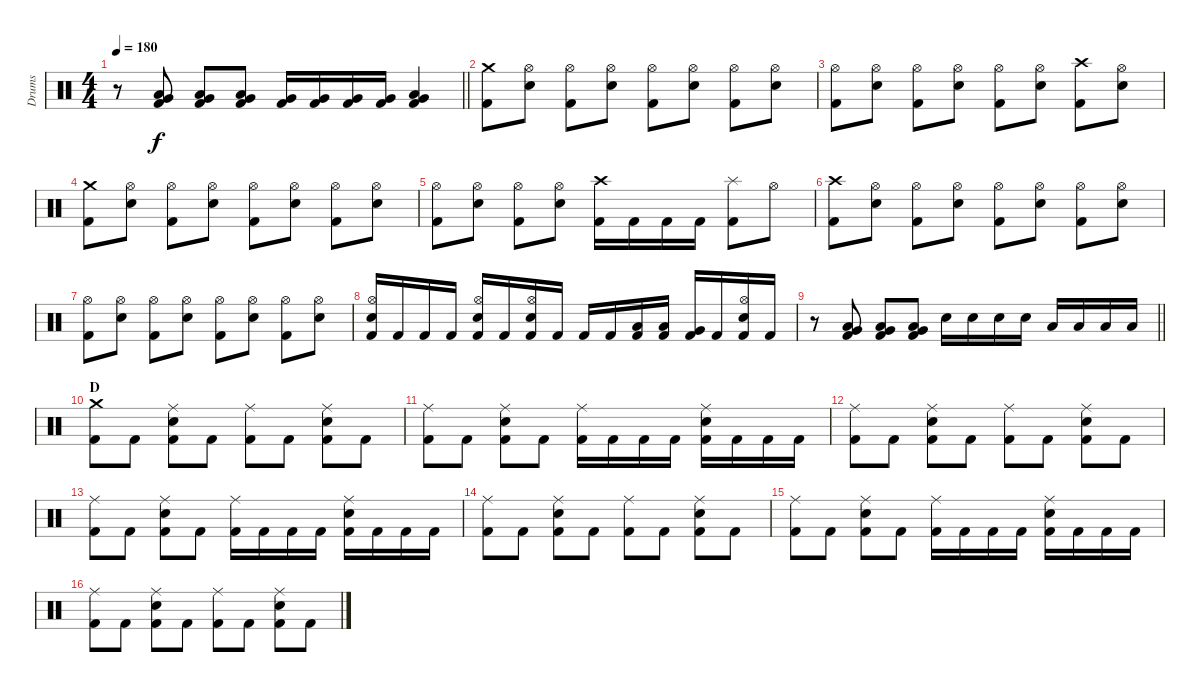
\track ("Drums" "Drums") {instrument percussion}
\staff {score}
\articulation defaults
\ts (4 4)
\tempo 180
\clef neutral
\barLineRight lightlight
\ks c
r.8{dy f} ("Low Tom (hit)" "Very Low Tom (hit)" "Kick (hit) 2").8 ("Low Tom (hit)" "Very Low Tom (hit)" "Kick (hit) 2").8 ("Low Tom (hit)" "Very Low Tom (hit)" "Kick (hit) 2").8 ("Very Low Tom (hit)" "Kick (hit) 2").16 ("Very Low Tom (hit)" "Kick (hit) 2").16 ("Very Low Tom (hit)" "Kick (hit) 2").16 ("Very Low Tom (hit)" "Kick (hit) 2").16 ("Low Tom (hit)" "Very Low Tom (hit)" "Kick (hit) 2").4 |
("Crash medium (hit)" "Kick (hit) 2").8 ("Hi-Hat (open)" "Electric Snare (hit)").8 ("Hi-Hat (open)" "Kick (hit) 2").8 ("Hi-Hat (open)" "Electric Snare (hit)").8 ("Hi-Hat (open)" "Kick (hit) 2").8 ("Hi-Hat (open)" "Electric Snare (hit)").8 ("Hi-Hat (open)" "Kick (hit) 2").8 ("Hi-Hat (open)" "Electric Snare (hit)").8 |
("Hi-Hat (open)" "Kick (hit) 2").8 ("Hi-Hat (open)" "Electric Snare (hit)").8 ("Hi-Hat (open)" "Kick (hit) 2").8 ("Hi-Hat (open)" "Electric Snare (hit)").8 ("Hi-Hat (open)" "Kick (hit) 2").8 ("Hi-Hat (open)" "Electric Snare (hit)").8 ("Crash high (hit)" "Kick (hit) 2").8 ("Hi-Hat (open)" "Electric Snare (hit)").8 |
("Crash medium (hit)" "Kick (hit) 2").8 ("Hi-Hat (open)" "Electric Snare (hit)").8 ("Hi-Hat (open)" "Kick (hit) 2").8 ("Hi-Hat (open)" "Electric Snare (hit)").8 ("Hi-Hat (open)" "Kick (hit) 2").8 ("Hi-Hat (open)" "Electric Snare (hit)").8 ("Hi-Hat (open)" "Kick (hit) 2").8 ("Hi-Hat (open)" "Electric Snare (hit)").8 |
("Hi-Hat (open)" "Kick (hit) 2").8 ("Hi-Hat (open)" "Electric Snare (hit)").8 ("Hi-Hat (open)" "Kick (hit) 2").8 ("Hi-Hat (open)" "Electric Snare (hit)").8 ("Crash high (hit)" "Kick (hit) 2").16 "Kick (hit) 2".16 "Kick (hit) 2".16 "Kick (hit) 2".16 ("Splash (hit)" "Kick (hit) 2").8 "Hi-Hat (open)".8 |
("Crash high (hit)" "Kick (hit) 2").8 ("Hi-Hat (open)" "Electric Snare (hit)").8 ("Hi-Hat (open)" "Kick (hit) 2").8 ("Hi-Hat (open)" "Electric Snare (hit)").8 ("Hi-Hat (open)" "Kick (hit) 2").8 ("Hi-Hat (open)" "Electric Snare (hit)").8 ("Hi-Hat (open)" "Kick (hit) 2").8 ("Hi-Hat (open)" "Electric Snare (hit)").8 |
("Hi-Hat (open)" "Kick (hit) 2").8 ("Hi-Hat (open)" "Electric Snare (hit)").8 ("Hi-Hat (open)" "Kick (hit) 2").8 ("Hi-Hat (open)" "Electric Snare (hit)").8 ("Hi-Hat (open)" "Kick (hit) 2").8 ("Hi-Hat (open)" "Electric Snare (hit)").8 ("Hi-Hat (open)" "Kick (hit) 2").8 ("Hi-Hat (open)" "Electric Snare (hit)").8 |
("Hi-Hat (open)" "Electric Snare (hit)" "Kick (hit) 2").16 "Kick (hit) 2".16 "Kick (hit) 2".16 "Kick (hit) 2".16 ("Hi-Hat (open)" "Electric Snare (hit)" "Kick (hit) 2").16 "Kick (hit) 2".16 ("Hi-Hat (open)" "Electric Snare (hit)" "Kick (hit) 2").16 "Kick (hit) 2".16 "Kick (hit) 2".16 "Kick (hit) 2".16 ("Low Tom (hit)" "Kick (hit) 2").16 ("Low Tom (hit)" "Kick (hit) 2").16 ("Very Low Tom (hit)" "Kick (hit) 2").16 "Kick (hit) 2".16 ("Hi-Hat (open)" "Electric Snare (hit)" "Kick (hit) 2").16 "Kick (hit) 2".16 |
\barLineRight lightlight
r.8 ("Low Tom (hit)" "Very Low Tom (hit)" "Kick (hit) 2").8 ("Low Tom (hit)" "Very Low Tom (hit)" "Kick (hit) 2").8 ("Low Tom (hit)" "Very Low Tom (hit)" "Kick (hit) 2").8 "Electric Snare (hit)".16 "Electric Snare (hit)".16 "Electric Snare (hit)".16 "Electric Snare (hit)".16 "Low Tom (hit)".16 "Low Tom (hit)".16 "Low Tom (hit)".16 "Low Tom (hit)".16 |
\section ("" "D")
("Crash medium (hit)" "Kick (hit) 2").8 "Kick (hit) 2".8 ("Ride (middle)" "Electric Snare (hit)" "Kick (hit) 2").8 "Kick (hit) 2".8 ("Ride (middle)" "Kick (hit) 2").8 "Kick (hit) 2".8 ("Ride (middle)" "Electric Snare (hit)" "Kick (hit) 2").8 "Kick (hit) 2".8 |
("Ride (middle)" "Kick (hit) 2").8 "Kick (hit) 2".8 ("Ride (middle)" "Electric Snare (hit)" "Kick (hit) 2").8 "Kick (hit) 2".8 ("Ride (middle)" "Kick (hit) 2").16 "Kick (hit) 2".16 "Kick (hit) 2".16 "Kick (hit) 2".16 ("Ride (middle)" "Electric Snare (hit)" "Kick (hit) 2").16 "Kick (hit) 2".16 "Kick (hit) 2".16 "Kick (hit) 2".16 |
("Ride (middle)" "Kick (hit) 2").8 "Kick (hit) 2".8 ("Ride (middle)" "Electric Snare (hit)" "Kick (hit) 2").8 "Kick (hit) 2".8 ("Ride (middle)" "Kick (hit) 2").8 "Kick (hit) 2".8 ("Ride (middle)" "Electric Snare (hit)" "Kick (hit) 2").8 "Kick (hit) 2".8 |
("Ride (middle)" "Kick (hit) 2").8 "Kick (hit) 2".8 ("Ride (middle)" "Electric Snare (hit)" "Kick (hit) 2").8 "Kick (hit) 2".8 ("Ride (middle)" "Kick (hit) 2").16 "Kick (hit) 2".16 "Kick (hit) 2".16 "Kick (hit) 2".16 ("Ride (middle)" "Electric Snare (hit)" "Kick (hit) 2").16 "Kick (hit) 2".16 "Kick (hit) 2".16 "Kick (hit) 2".16 |
("Ride (middle)" "Kick (hit) 2").8 "Kick (hit) 2".8 ("Ride (middle)" "Electric Snare (hit)" "Kick (hit) 2").8 "Kick (hit) 2".8 ("Ride (middle)" "Kick (hit) 2").8 "Kick (hit) 2".8 ("Ride (middle)" "Electric Snare (hit)" "Kick (hit) 2").8 "Kick (hit) 2".8 |
("Ride (middle)" "Kick (hit) 2").8 "Kick (hit) 2".8 ("Ride (middle)" "Electric Snare (hit)" "Kick (hit) 2").8 "Kick (hit) 2".8 ("Ride (middle)" "Kick (hit) 2").16 "Kick (hit) 2".16 "Kick (hit) 2".16 "Kick (hit) 2".16 ("Ride (middle)" "Electric Snare (hit)" "Kick (hit) 2").16 "Kick (hit) 2".16 "Kick (hit) 2".16 "Kick (hit) 2".16 |
("Ride (middle)" "Kick (hit) 2").8 "Kick (hit) 2".8 ("Ride (middle)" "Electric Snare (hit)" "Kick (hit) 2").8 "Kick (hit) 2".8 ("Ride (middle)" "Kick (hit) 2").8 "Kick (hit) 2".8 ("Ride (middle)" "Electric Snare (hit)" "Kick (hit) 2").8 "Kick (hit) 2".8
